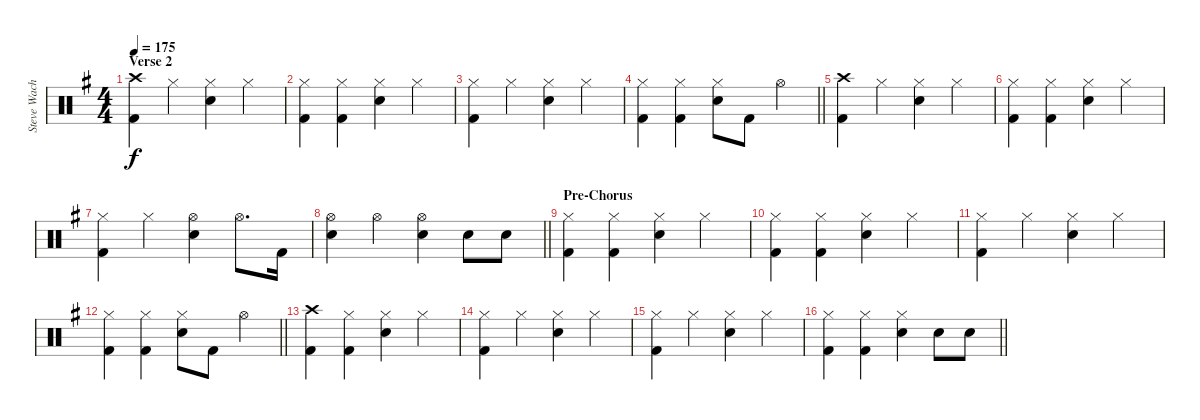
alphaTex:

\track ("Steve Wacholz" "Steve Wach") {instrument percussion}
\staff {score}
\articulation defaults
\ts (4 4)
\section ("" "Verse 2")
\tempo 175
\clef neutral
\ks eminor
("Crash high (hit)" "Kick (hit) 2").4{dy f} "Hi-Hat (closed)".4 ("Hi-Hat (closed)" "Electric Snare (hit)").4 "Hi-Hat (closed)".4 |
("Hi-Hat (closed)" "Kick (hit) 2").4 ("Hi-Hat (closed)" "Kick (hit) 2").4 ("Hi-Hat (closed)" "Electric Snare (hit)").4 "Hi-Hat (closed)".4 |
("Hi-Hat (closed)" "Kick (hit) 2").4 "Hi-Hat (closed)".4 ("Hi-Hat (closed)" "Electric Snare (hit)").4 "Hi-Hat (closed)".4 |
\barLineRight lightlight
("Hi-Hat (closed)" "Kick (hit) 2").4 ("Hi-Hat (closed)" "Kick (hit) 2").4 ("Hi-Hat (closed)" "Electric Snare (hit)").8 "Kick (hit) 2".8 "Hi-Hat (open)".4 |
("Crash high (hit)" "Kick (hit) 2").4 "Hi-Hat (closed)".4 ("Hi-Hat (closed)" "Electric Snare (hit)").4 "Hi-Hat (closed)".4 |
("Hi-Hat (closed)" "Kick (hit) 2").4 ("Hi-Hat (closed)" "Kick (hit) 2").4 ("Hi-Hat (closed)" "Electric Snare (hit)").4 "Hi-Hat (closed)".4 |
("Hi-Hat (closed)" "Kick (hit) 2").4 "Hi-Hat (closed)".4 ("Hi-Hat (open)" "Electric Snare (hit)").4 "Hi-Hat (open)".8{d} "Kick (hit) 2".16 |
\barLineRight lightlight
("Hi-Hat (open)" "Electric Snare (hit)").4 "Hi-Hat (open)".4 ("Hi-Hat (open)" "Electric Snare (hit)").4 "Electric Snare (hit)".8 "Electric Snare (hit)".8 |
\section ("" "Pre-Chorus")
("Hi-Hat (closed)" "Kick (hit) 2").4 ("Hi-Hat (closed)" "Kick (hit) 2").4 ("Hi-Hat (closed)" "Electric Snare (hit)").4 "Hi-Hat (closed)".4 |
("Hi-Hat (closed)" "Kick (hit) 2").4 ("Hi-Hat (closed)" "Kick (hit) 2").4 ("Hi-Hat (closed)" "Electric Snare (hit)").4 "Hi-Hat (closed)".4 |
("Hi-Hat (closed)" "Kick (hit) 2").4 "Hi-Hat (closed)".4 ("Hi-Hat (closed)" "Electric Snare (hit)").4 "Hi-Hat (closed)".4 |
\barLineRight lightlight
("Hi-Hat (closed)" "Kick (hit) 2").4 ("Hi-Hat (closed)" "Kick (hit) 2").4 ("Hi-Hat (closed)" "Electric Snare (hit)").8 "Kick (hit) 2".8 "Hi-Hat (open)".4 |
("Crash high (hit)" "Kick (hit) 2").4 ("Hi-Hat (closed)" "Kick (hit) 2").4 ("Hi-Hat (closed)" "Electric Snare (hit)").4 "Hi-Hat (closed)".4 |
("Hi-Hat (closed)" "Kick (hit) 2").4 "Hi-Hat (closed)".4 ("Hi-Hat (closed)" "Electric Snare (hit)").4 "Hi-Hat (closed)".4 |
("Hi-Hat (closed)" "Kick (hit) 2").4 "Hi-Hat (closed)".4 ("Hi-Hat (closed)" "Electric Snare (hit)").4 "Hi-Hat (closed)".4 |
\barLineRight lightlight
("Hi-Hat (closed)" "Kick (hit) 2").4 ("Hi-Hat (closed)" "Kick (hit) 2").4 ("Hi-Hat (closed)" "Electric Snare (hit)").4 "Electric Snare (hit)".8 "Electric Snare (hit)".8
